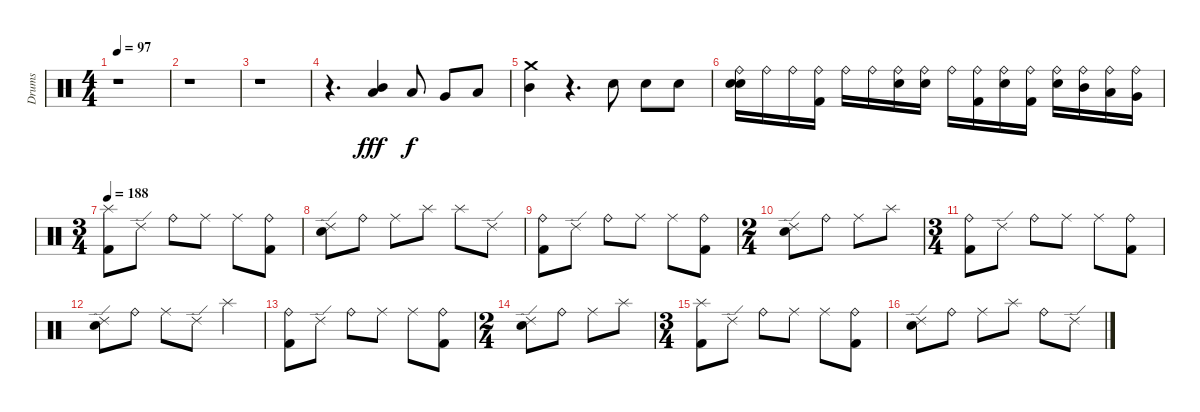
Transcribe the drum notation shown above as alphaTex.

\track ("Drums" "Drums") {instrument percussion}
\staff {score}
\articulation defaults
\ts (4 4)
\tempo 97
\clef neutral
\ks c
r.1{dy f} |
r.1 |
r.1 |
r.4{d} ("Low Tom (hit)" "Mid Tom (hit)").4{dy fff} "Low Tom (hit)".8{dy f} "Very Low Tom (hit)".8 "Low Floor Tom (hit)".8 |
("Crash medium (hit)" "Mid Tom (hit)").4 r.4{d} "Snare (hit) 2".8 "Snare (hit) 2".8 "Snare (hit) 2".8 |
("Electric Snare (hit)" "Electric Snare (hit)" "Ride (bell)").16 "Ride (bell)".16 "Ride (bell)".16 ("Ride (bell)" "Kick (hit) 2").16 "Ride (bell)".16 "Ride (bell)".16 ("Snare (hit) 2" "Ride (bell)").16 ("Electric Snare (hit)" "Ride (bell)").16 "Ride (bell)".16 ("Ride (bell)" "Kick (hit) 2").16 ("Electric Snare (hit)" "Ride (bell)").16 ("Ride (bell)" "Kick (hit) 2").16 ("Electric Snare (hit)" "Ride (bell)").16 ("Ride (bell)" "Mid Tom (hit)").16 ("Ride (bell)" "Low Tom (hit)").16 ("Ride (bell)" "Very Low Tom (hit)").16 |
\ts (3 4)
\tempo 188
("Splash (hit)" "Kick (hit) 2").8 "Ride (edge) 2".8 "Ride (bell)".8 "Ride (middle)".8 "Ride (middle)".8 ("Ride (bell)" "Kick (hit) 2").8 |
("Electric Snare (hit)" "Ride (edge) 2").8 "Ride (bell)".8 "Ride (middle)".8 "Splash (hit)".8 "Splash (hit)".8 "Ride (edge) 2".8 |
("Ride (bell)" "Kick (hit) 2").8 "Ride (edge) 2".8 "Ride (bell)".8 "Ride (middle)".8 "Ride (middle)".8 ("Ride (bell)" "Kick (hit) 2").8 |
\ts (2 4)
("Electric Snare (hit)" "Ride (edge) 2").8 "Ride (bell)".8 "Ride (middle)".8 "Splash (hit)".8 |
\ts (3 4)
("Ride (bell)" "Kick (hit) 2").8 "Ride (edge) 2".8 "Ride (bell)".8 "Ride (middle)".8 "Ride (middle)".8 ("Ride (bell)" "Kick (hit) 2").8 |
("Electric Snare (hit)" "Ride (edge) 2").8 "Ride (bell)".8 "Ride (middle)".8 "Ride (edge) 2".8 "Splash (hit)".4 |
("Ride (bell)" "Kick (hit) 2").8 "Ride (edge) 2".8 "Ride (bell)".8 "Ride (middle)".8 "Ride (middle)".8 ("Ride (bell)" "Kick (hit) 2").8 |
\ts (2 4)
("Electric Snare (hit)" "Ride (edge) 2").8 "Ride (bell)".8 "Ride (middle)".8 "Splash (hit)".8 |
\ts (3 4)
("Splash (hit)" "Kick (hit) 2").8 "Ride (edge) 2".8 "Ride (bell)".8 "Ride (middle)".8 "Ride (middle)".8 ("Ride (bell)" "Kick (hit) 2").8 |
("Electric Snare (hit)" "Ride (edge) 2").8 "Ride (bell)".8 "Ride (middle)".8 "Splash (hit)".8 "Ride (bell)".8 "Ride (edge) 2".8
